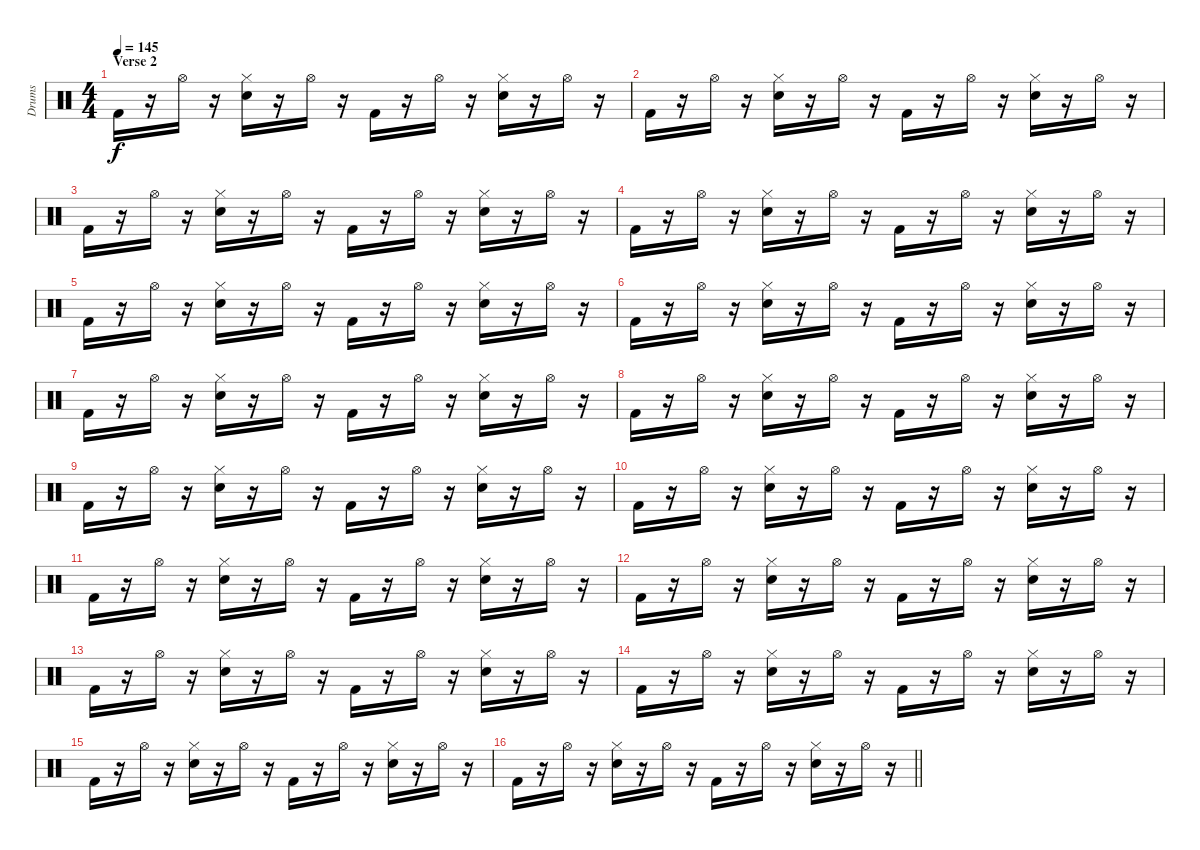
\track ("Drums" "Drums") {instrument percussion}
\staff {score}
\articulation defaults
\ts (4 4)
\section ("" "Verse 2")
\tempo 145
\clef neutral
\ks c "Kick (hit) 2".16{dy f volume 14}
r.16 "Hi-Hat (open)".16 r.16 ("Snare (hit) 2" "Hi-Hat (closed)").16 r.16 "Hi-Hat (open)".16 r.16 "Kick (hit) 2".16 r.16 "Hi-Hat (open)".16 r.16 ("Snare (hit) 2" "Hi-Hat (closed)").16 r.16 "Hi-Hat (open)".16 r.16 |
"Kick (hit) 2".16 r.16 "Hi-Hat (open)".16 r.16 ("Snare (hit) 2" "Hi-Hat (closed)").16 r.16 "Hi-Hat (open)".16 r.16 "Kick (hit) 2".16 r.16 "Hi-Hat (open)".16 r.16 ("Snare (hit) 2" "Hi-Hat (closed)").16 r.16 "Hi-Hat (open)".16 r.16 |
"Kick (hit) 2".16 r.16 "Hi-Hat (open)".16 r.16 ("Snare (hit) 2" "Hi-Hat (closed)").16 r.16 "Hi-Hat (open)".16 r.16 "Kick (hit) 2".16 r.16 "Hi-Hat (open)".16 r.16 ("Snare (hit) 2" "Hi-Hat (closed)").16 r.16 "Hi-Hat (open)".16 r.16 |
"Kick (hit) 2".16 r.16 "Hi-Hat (open)".16 r.16 ("Snare (hit) 2" "Hi-Hat (closed)").16 r.16 "Hi-Hat (open)".16 r.16 "Kick (hit) 2".16 r.16 "Hi-Hat (open)".16 r.16 ("Snare (hit) 2" "Hi-Hat (closed)").16 r.16 "Hi-Hat (open)".16 r.16 |
"Kick (hit) 2".16 r.16 "Hi-Hat (open)".16 r.16 ("Snare (hit) 2" "Hi-Hat (closed)").16 r.16 "Hi-Hat (open)".16 r.16 "Kick (hit) 2".16 r.16 "Hi-Hat (open)".16 r.16 ("Snare (hit) 2" "Hi-Hat (closed)").16 r.16 "Hi-Hat (open)".16 r.16 |
"Kick (hit) 2".16 r.16 "Hi-Hat (open)".16 r.16 ("Snare (hit) 2" "Hi-Hat (closed)").16 r.16 "Hi-Hat (open)".16 r.16 "Kick (hit) 2".16 r.16 "Hi-Hat (open)".16 r.16 ("Snare (hit) 2" "Hi-Hat (closed)").16 r.16 "Hi-Hat (open)".16 r.16 |
"Kick (hit) 2".16 r.16 "Hi-Hat (open)".16 r.16 ("Snare (hit) 2" "Hi-Hat (closed)").16 r.16 "Hi-Hat (open)".16 r.16 "Kick (hit) 2".16 r.16 "Hi-Hat (open)".16 r.16 ("Snare (hit) 2" "Hi-Hat (closed)").16 r.16 "Hi-Hat (open)".16 r.16 |
"Kick (hit) 2".16 r.16 "Hi-Hat (open)".16 r.16 ("Snare (hit) 2" "Hi-Hat (closed)").16 r.16 "Hi-Hat (open)".16 r.16 "Kick (hit) 2".16 r.16 "Hi-Hat (open)".16 r.16 ("Snare (hit) 2" "Hi-Hat (closed)").16 r.16 "Hi-Hat (open)".16 r.16 |
"Kick (hit) 2".16 r.16 "Hi-Hat (open)".16 r.16 ("Snare (hit) 2" "Hi-Hat (closed)").16 r.16 "Hi-Hat (open)".16 r.16 "Kick (hit) 2".16 r.16 "Hi-Hat (open)".16 r.16 ("Snare (hit) 2" "Hi-Hat (closed)").16 r.16 "Hi-Hat (open)".16 r.16 |
"Kick (hit) 2".16 r.16 "Hi-Hat (open)".16 r.16 ("Snare (hit) 2" "Hi-Hat (closed)").16 r.16 "Hi-Hat (open)".16 r.16 "Kick (hit) 2".16 r.16 "Hi-Hat (open)".16 r.16 ("Snare (hit) 2" "Hi-Hat (closed)").16 r.16 "Hi-Hat (open)".16 r.16 |
"Kick (hit) 2".16 r.16 "Hi-Hat (open)".16 r.16 ("Snare (hit) 2" "Hi-Hat (closed)").16 r.16 "Hi-Hat (open)".16 r.16 "Kick (hit) 2".16 r.16 "Hi-Hat (open)".16 r.16 ("Snare (hit) 2" "Hi-Hat (closed)").16 r.16 "Hi-Hat (open)".16 r.16 |
"Kick (hit) 2".16 r.16 "Hi-Hat (open)".16 r.16 ("Snare (hit) 2" "Hi-Hat (closed)").16 r.16 "Hi-Hat (open)".16 r.16 "Kick (hit) 2".16 r.16 "Hi-Hat (open)".16 r.16 ("Snare (hit) 2" "Hi-Hat (closed)").16 r.16 "Hi-Hat (open)".16 r.16 |
"Kick (hit) 2".16 r.16 "Hi-Hat (open)".16 r.16 ("Snare (hit) 2" "Hi-Hat (closed)").16 r.16 "Hi-Hat (open)".16 r.16 "Kick (hit) 2".16 r.16 "Hi-Hat (open)".16 r.16 ("Snare (hit) 2" "Hi-Hat (closed)").16 r.16 "Hi-Hat (open)".16 r.16 |
"Kick (hit) 2".16 r.16 "Hi-Hat (open)".16 r.16 ("Snare (hit) 2" "Hi-Hat (closed)").16 r.16 "Hi-Hat (open)".16 r.16 "Kick (hit) 2".16 r.16 "Hi-Hat (open)".16 r.16 ("Snare (hit) 2" "Hi-Hat (closed)").16 r.16 "Hi-Hat (open)".16 r.16 |
"Kick (hit) 2".16 r.16 "Hi-Hat (open)".16 r.16 ("Snare (hit) 2" "Hi-Hat (closed)").16 r.16 "Hi-Hat (open)".16 r.16 "Kick (hit) 2".16 r.16 "Hi-Hat (open)".16 r.16 ("Snare (hit) 2" "Hi-Hat (closed)").16 r.16 "Hi-Hat (open)".16 r.16 |
\barLineRight lightlight "Kick (hit) 2".16
r.16 "Hi-Hat (open)".16 r.16 ("Snare (hit) 2" "Hi-Hat (closed)").16 r.16 "Hi-Hat (open)".16 r.16 "Kick (hit) 2".16 r.16 "Hi-Hat (open)".16 r.16 ("Snare (hit) 2" "Hi-Hat (closed)").16 r.16 "Hi-Hat (open)".16 r.16
